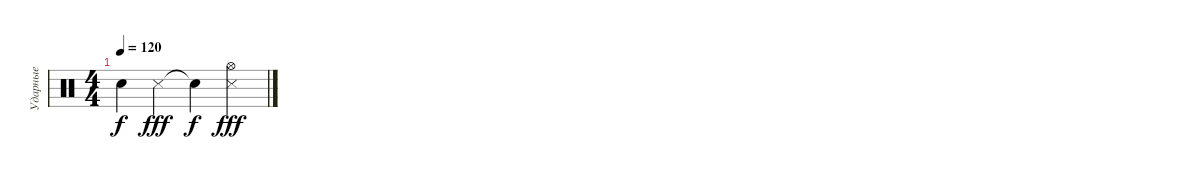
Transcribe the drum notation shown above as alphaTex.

\track ("Ударные" "Ударные") {instrument percussion}
\staff {score}
\articulation defaults
\ts (4 4)
\tempo 120
\clef neutral
\ks c "Snare (hit)"{t}.4{dy f} "Snare (side stick) 3".4{dy fff} "Snare (hit)"{t}.4{dy f}
("Snare (side stick) 3" "Hi-Hat (open)").4{dy fff}
